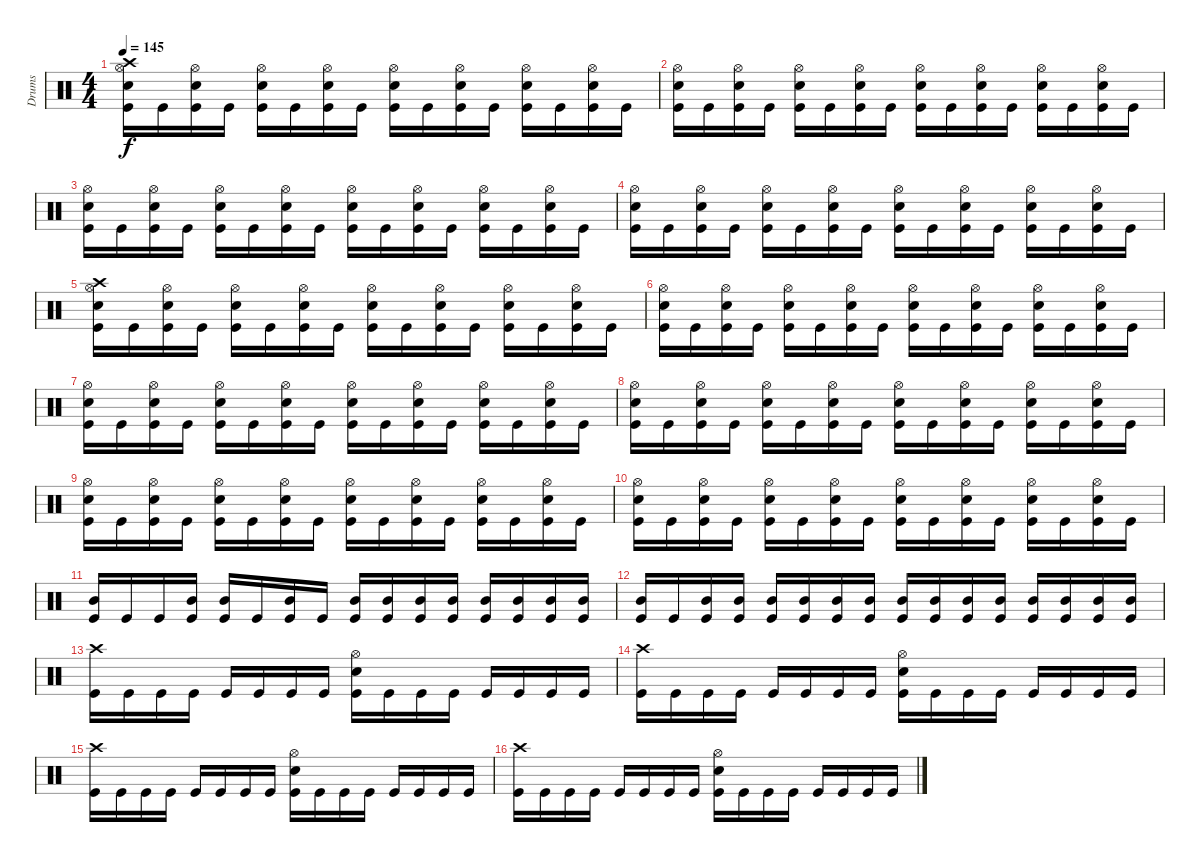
\track ("Drums" "Drums") {instrument percussion}
\staff {score}
\articulation defaults
\ts (4 4)
\tempo 145
\clef neutral
\ks c
("Crash high (hit)" "Hi-Hat (open)" "Electric Snare (hit)" "Kick (hit)").16{dy f} "Kick (hit)".16 ("Hi-Hat (open)" "Electric Snare (hit)" "Kick (hit)").16 "Kick (hit)".16 ("Hi-Hat (open)" "Electric Snare (hit)" "Kick (hit)").16 "Kick (hit)".16 ("Hi-Hat (open)" "Electric Snare (hit)" "Kick (hit)").16 "Kick (hit)".16 ("Hi-Hat (open)" "Electric Snare (hit)" "Kick (hit)").16 "Kick (hit)".16 ("Hi-Hat (open)" "Electric Snare (hit)" "Kick (hit)").16 "Kick (hit)".16 ("Hi-Hat (open)" "Electric Snare (hit)" "Kick (hit)").16 "Kick (hit)".16 ("Hi-Hat (open)" "Electric Snare (hit)" "Kick (hit)").16 "Kick (hit)".16 |
("Hi-Hat (open)" "Electric Snare (hit)" "Kick (hit)").16 "Kick (hit)".16 ("Hi-Hat (open)" "Electric Snare (hit)" "Kick (hit)").16 "Kick (hit)".16 ("Hi-Hat (open)" "Electric Snare (hit)" "Kick (hit)").16 "Kick (hit)".16 ("Hi-Hat (open)" "Electric Snare (hit)" "Kick (hit)").16 "Kick (hit)".16 ("Hi-Hat (open)" "Electric Snare (hit)" "Kick (hit)").16 "Kick (hit)".16 ("Hi-Hat (open)" "Electric Snare (hit)" "Kick (hit)").16 "Kick (hit)".16 ("Hi-Hat (open)" "Electric Snare (hit)" "Kick (hit)").16 "Kick (hit)".16 ("Hi-Hat (open)" "Electric Snare (hit)" "Kick (hit)").16 "Kick (hit)".16 |
("Hi-Hat (open)" "Electric Snare (hit)" "Kick (hit)").16 "Kick (hit)".16 ("Hi-Hat (open)" "Electric Snare (hit)" "Kick (hit)").16 "Kick (hit)".16 ("Hi-Hat (open)" "Electric Snare (hit)" "Kick (hit)").16 "Kick (hit)".16 ("Hi-Hat (open)" "Electric Snare (hit)" "Kick (hit)").16 "Kick (hit)".16 ("Hi-Hat (open)" "Electric Snare (hit)" "Kick (hit)").16 "Kick (hit)".16 ("Hi-Hat (open)" "Electric Snare (hit)" "Kick (hit)").16 "Kick (hit)".16 ("Hi-Hat (open)" "Electric Snare (hit)" "Kick (hit)").16 "Kick (hit)".16 ("Hi-Hat (open)" "Electric Snare (hit)" "Kick (hit)").16 "Kick (hit)".16 |
("Hi-Hat (open)" "Electric Snare (hit)" "Kick (hit)").16 "Kick (hit)".16 ("Hi-Hat (open)" "Electric Snare (hit)" "Kick (hit)").16 "Kick (hit)".16 ("Hi-Hat (open)" "Electric Snare (hit)" "Kick (hit)").16 "Kick (hit)".16 ("Hi-Hat (open)" "Electric Snare (hit)" "Kick (hit)").16 "Kick (hit)".16 ("Hi-Hat (open)" "Electric Snare (hit)" "Kick (hit)").16 "Kick (hit)".16 ("Hi-Hat (open)" "Electric Snare (hit)" "Kick (hit)").16 "Kick (hit)".16 ("Hi-Hat (open)" "Electric Snare (hit)" "Kick (hit)").16 "Kick (hit)".16 ("Hi-Hat (open)" "Electric Snare (hit)" "Kick (hit)").16 "Kick (hit)".16 |
("Crash high (hit)" "Hi-Hat (open)" "Electric Snare (hit)" "Kick (hit)").16 "Kick (hit)".16 ("Hi-Hat (open)" "Electric Snare (hit)" "Kick (hit)").16 "Kick (hit)".16 ("Hi-Hat (open)" "Electric Snare (hit)" "Kick (hit)").16 "Kick (hit)".16 ("Hi-Hat (open)" "Electric Snare (hit)" "Kick (hit)").16 "Kick (hit)".16 ("Hi-Hat (open)" "Electric Snare (hit)" "Kick (hit)").16 "Kick (hit)".16 ("Hi-Hat (open)" "Electric Snare (hit)" "Kick (hit)").16 "Kick (hit)".16 ("Hi-Hat (open)" "Electric Snare (hit)" "Kick (hit)").16 "Kick (hit)".16 ("Hi-Hat (open)" "Electric Snare (hit)" "Kick (hit)").16 "Kick (hit)".16 |
("Hi-Hat (open)" "Electric Snare (hit)" "Kick (hit)").16 "Kick (hit)".16 ("Hi-Hat (open)" "Electric Snare (hit)" "Kick (hit)").16 "Kick (hit)".16 ("Hi-Hat (open)" "Electric Snare (hit)" "Kick (hit)").16 "Kick (hit)".16 ("Hi-Hat (open)" "Electric Snare (hit)" "Kick (hit)").16 "Kick (hit)".16 ("Hi-Hat (open)" "Electric Snare (hit)" "Kick (hit)").16 "Kick (hit)".16 ("Hi-Hat (open)" "Electric Snare (hit)" "Kick (hit)").16 "Kick (hit)".16 ("Hi-Hat (open)" "Electric Snare (hit)" "Kick (hit)").16 "Kick (hit)".16 ("Hi-Hat (open)" "Electric Snare (hit)" "Kick (hit)").16 "Kick (hit)".16 |
("Hi-Hat (open)" "Electric Snare (hit)" "Kick (hit)").16 "Kick (hit)".16 ("Hi-Hat (open)" "Electric Snare (hit)" "Kick (hit)").16 "Kick (hit)".16 ("Hi-Hat (open)" "Electric Snare (hit)" "Kick (hit)").16 "Kick (hit)".16 ("Hi-Hat (open)" "Electric Snare (hit)" "Kick (hit)").16 "Kick (hit)".16 ("Hi-Hat (open)" "Electric Snare (hit)" "Kick (hit)").16 "Kick (hit)".16 ("Hi-Hat (open)" "Electric Snare (hit)" "Kick (hit)").16 "Kick (hit)".16 ("Hi-Hat (open)" "Electric Snare (hit)" "Kick (hit)").16 "Kick (hit)".16 ("Hi-Hat (open)" "Electric Snare (hit)" "Kick (hit)").16 "Kick (hit)".16 |
("Hi-Hat (open)" "Electric Snare (hit)" "Kick (hit)").16 "Kick (hit)".16 ("Hi-Hat (open)" "Electric Snare (hit)" "Kick (hit)").16 "Kick (hit)".16 ("Hi-Hat (open)" "Electric Snare (hit)" "Kick (hit)").16 "Kick (hit)".16 ("Hi-Hat (open)" "Electric Snare (hit)" "Kick (hit)").16 "Kick (hit)".16 ("Hi-Hat (open)" "Electric Snare (hit)" "Kick (hit)").16 "Kick (hit)".16 ("Hi-Hat (open)" "Electric Snare (hit)" "Kick (hit)").16 "Kick (hit)".16 ("Hi-Hat (open)" "Electric Snare (hit)" "Kick (hit)").16 "Kick (hit)".16 ("Hi-Hat (open)" "Electric Snare (hit)" "Kick (hit)").16 "Kick (hit)".16 |
("Hi-Hat (open)" "Electric Snare (hit)" "Kick (hit)").16 "Kick (hit)".16 ("Hi-Hat (open)" "Electric Snare (hit)" "Kick (hit)").16 "Kick (hit)".16 ("Hi-Hat (open)" "Electric Snare (hit)" "Kick (hit)").16 "Kick (hit)".16 ("Hi-Hat (open)" "Electric Snare (hit)" "Kick (hit)").16 "Kick (hit)".16 ("Hi-Hat (open)" "Electric Snare (hit)" "Kick (hit)").16 "Kick (hit)".16 ("Hi-Hat (open)" "Electric Snare (hit)" "Kick (hit)").16 "Kick (hit)".16 ("Hi-Hat (open)" "Electric Snare (hit)" "Kick (hit)").16 "Kick (hit)".16 ("Hi-Hat (open)" "Electric Snare (hit)" "Kick (hit)").16 "Kick (hit)".16 |
("Hi-Hat (open)" "Electric Snare (hit)" "Kick (hit)").16 "Kick (hit)".16 ("Hi-Hat (open)" "Electric Snare (hit)" "Kick (hit)").16 "Kick (hit)".16 ("Hi-Hat (open)" "Electric Snare (hit)" "Kick (hit)").16 "Kick (hit)".16 ("Hi-Hat (open)" "Electric Snare (hit)" "Kick (hit)").16 "Kick (hit)".16 ("Hi-Hat (open)" "Electric Snare (hit)" "Kick (hit)").16 "Kick (hit)".16 ("Hi-Hat (open)" "Electric Snare (hit)" "Kick (hit)").16 "Kick (hit)".16 ("Hi-Hat (open)" "Electric Snare (hit)" "Kick (hit)").16 "Kick (hit)".16 ("Hi-Hat (open)" "Electric Snare (hit)" "Kick (hit)").16 "Kick (hit)".16 |
("Mid Tom (hit)" "Kick (hit)").16 "Kick (hit)".16 "Kick (hit)".16 ("Mid Tom (hit)" "Kick (hit)").16 ("Mid Tom (hit)" "Kick (hit)").16 "Kick (hit)".16 ("Mid Tom (hit)" "Kick (hit)").16 "Kick (hit)".16 ("Mid Tom (hit)" "Kick (hit)").16 ("Mid Tom (hit)" "Kick (hit)").16 ("Mid Tom (hit)" "Kick (hit)").16 ("Mid Tom (hit)" "Kick (hit)").16 ("Mid Tom (hit)" "Kick (hit)").16 ("Mid Tom (hit)" "Kick (hit)").16 ("Mid Tom (hit)" "Kick (hit)").16 ("Mid Tom (hit)" "Kick (hit)").16 |
("Mid Tom (hit)" "Kick (hit)").16 "Kick (hit)".16 ("Mid Tom (hit)" "Kick (hit)").16 ("Mid Tom (hit)" "Kick (hit)").16 ("Mid Tom (hit)" "Kick (hit)").16 ("Mid Tom (hit)" "Kick (hit)").16 ("Mid Tom (hit)" "Kick (hit)").16 ("Mid Tom (hit)" "Kick (hit)").16 ("Mid Tom (hit)" "Kick (hit)").16 ("Mid Tom (hit)" "Kick (hit)").16 ("Mid Tom (hit)" "Kick (hit)").16 ("Mid Tom (hit)" "Kick (hit)").16 ("Mid Tom (hit)" "Kick (hit)").16 ("Mid Tom (hit)" "Kick (hit)").16 ("Mid Tom (hit)" "Kick (hit)").16 ("Mid Tom (hit)" "Kick (hit)").16 |
("Crash high (hit)" "Kick (hit)").16 "Kick (hit)".16 "Kick (hit)".16 "Kick (hit)".16 "Kick (hit)".16 "Kick (hit)".16 "Kick (hit)".16 "Kick (hit)".16 ("Hi-Hat (open)" "Electric Snare (hit)" "Kick (hit)").16 "Kick (hit)".16 "Kick (hit)".16 "Kick (hit)".16 "Kick (hit)".16 "Kick (hit)".16 "Kick (hit)".16 "Kick (hit)".16 |
("Crash high (hit)" "Kick (hit)").16 "Kick (hit)".16 "Kick (hit)".16 "Kick (hit)".16 "Kick (hit)".16 "Kick (hit)".16 "Kick (hit)".16 "Kick (hit)".16 ("Hi-Hat (open)" "Electric Snare (hit)" "Kick (hit)").16 "Kick (hit)".16 "Kick (hit)".16 "Kick (hit)".16 "Kick (hit)".16 "Kick (hit)".16 "Kick (hit)".16 "Kick (hit)".16 |
("Crash high (hit)" "Kick (hit)").16 "Kick (hit)".16 "Kick (hit)".16 "Kick (hit)".16 "Kick (hit)".16 "Kick (hit)".16 "Kick (hit)".16 "Kick (hit)".16 ("Hi-Hat (open)" "Electric Snare (hit)" "Kick (hit)").16 "Kick (hit)".16 "Kick (hit)".16 "Kick (hit)".16 "Kick (hit)".16 "Kick (hit)".16 "Kick (hit)".16 "Kick (hit)".16 |
("Crash high (hit)" "Kick (hit)").16 "Kick (hit)".16 "Kick (hit)".16 "Kick (hit)".16 "Kick (hit)".16 "Kick (hit)".16 "Kick (hit)".16 "Kick (hit)".16 ("Hi-Hat (open)" "Electric Snare (hit)" "Kick (hit)").16 "Kick (hit)".16 "Kick (hit)".16 "Kick (hit)".16 "Kick (hit)".16 "Kick (hit)".16 "Kick (hit)".16 "Kick (hit)".16
